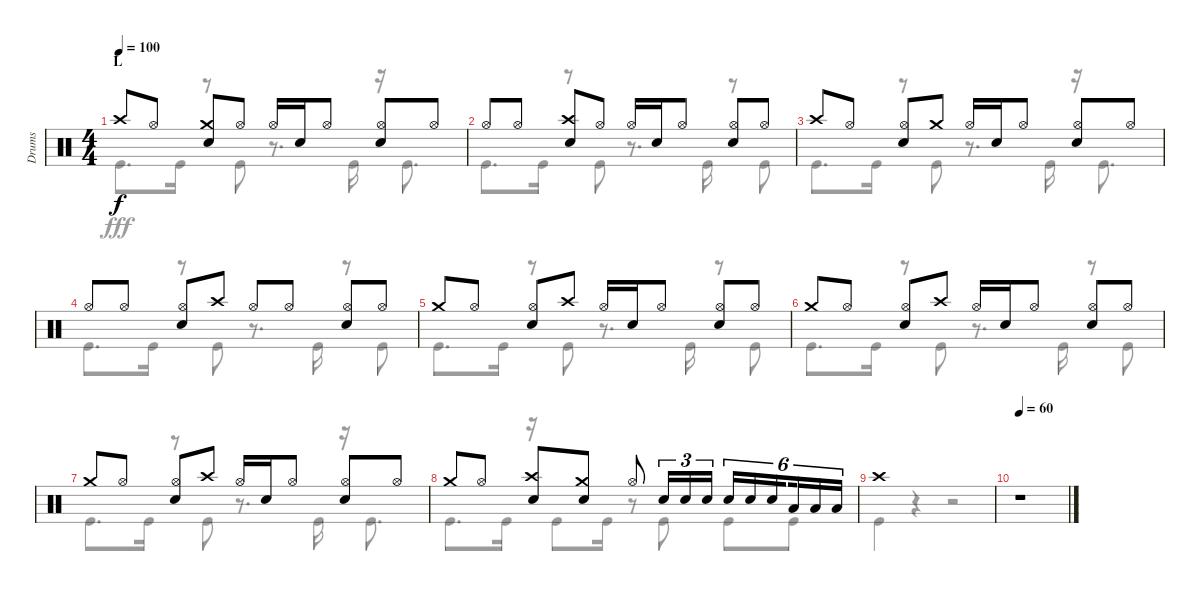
\track ("Drums" "Drums") {instrument percussion}
\staff {score}
\articulation defaults
\voice
\ts (4 4)
\section ("" "L")
\tempo 100
\clef neutral
\ks c "Crash high (hit)".8{dy f} "Hi-Hat (open)".8
("Crash medium (hit)" "Snare (hit) 2").8 "Hi-Hat (open)".8 "Hi-Hat (open)".16 "Snare (hit) 2".16 "Hi-Hat (open)".8 ("Hi-Hat (open)" "Snare (hit) 2").8 "Hi-Hat (open)".8 |
"Hi-Hat (open)".8 "Hi-Hat (open)".8 ("Crash high (hit)" "Snare (hit) 2").8 "Hi-Hat (open)".8 "Hi-Hat (open)".16 "Snare (hit) 2".16 "Hi-Hat (open)".8 ("Hi-Hat (open)" "Snare (hit) 2").8 "Hi-Hat (open)".8 |
"Crash high (hit)".8 "Hi-Hat (open)".8 ("Hi-Hat (open)" "Snare (hit) 2").8 "Crash medium (hit)".8 "Hi-Hat (open)".16 "Snare (hit) 2".16 "Hi-Hat (open)".8 ("Hi-Hat (open)" "Snare (hit) 2").8 "Hi-Hat (open)".8 |
"Hi-Hat (open)".8 "Hi-Hat (open)".8 ("Hi-Hat (open)" "Snare (hit) 2").8 "Crash high (hit)".8 "Hi-Hat (open)".8 "Hi-Hat (open)".8 ("Hi-Hat (open)" "Snare (hit) 2").8 "Hi-Hat (open)".8 |
"Crash medium (hit)".8 "Hi-Hat (open)".8 ("Hi-Hat (open)" "Snare (hit) 2").8 "Crash high (hit)".8 "Hi-Hat (open)".16 "Snare (hit) 2".16 "Hi-Hat (open)".8 ("Hi-Hat (open)" "Snare (hit) 2").8 "Hi-Hat (open)".8 |
"Crash medium (hit)".8 "Hi-Hat (open)".8 ("Hi-Hat (open)" "Snare (hit) 2").8 "Crash high (hit)".8 "Hi-Hat (open)".16 "Snare (hit) 2".16 "Hi-Hat (open)".8 ("Hi-Hat (open)" "Snare (hit) 2").8 "Hi-Hat (open)".8 |
"Crash medium (hit)".8 "Hi-Hat (open)".8 ("Hi-Hat (open)" "Snare (hit) 2").8 "Crash high (hit)".8 "Hi-Hat (open)".16 "Snare (hit) 2".16 "Hi-Hat (open)".8 ("Hi-Hat (open)" "Snare (hit) 2").8 "Hi-Hat (open)".8 |
"Crash medium (hit)".8 "Hi-Hat (open)".8 ("Crash high (hit)" "Snare (hit) 2").8 ("Crash medium (hit)" "Snare (hit) 2").8 "Hi-Hat (open)".8 "Snare (hit) 2".16{tu (3 2)} "Snare (hit) 2".16{tu (3 2)} "Snare (hit) 2".16{tu (3 2)} "Snare (hit) 2".16{tu (6 4)} "Snare (hit) 2".16{tu (6 4)} "Snare (hit) 2".16{tu (6 4) beam splitsecondary} "Low Tom (hit)".16{tu (6 4)} "Low Tom (hit)".16{tu (6 4)} "Low Tom (hit)".16{tu (6 4)} |
"Crash high (hit)".1 |
\tempo 60
r.1
\voice
\clef neutral
\ottava regular
\simile none
\ks c "Kick (hit)".8{d dy fff} "Kick (hit)".16
r.8 "Kick (hit)".8 r.8{d} "Kick (hit)".16 r.16 "Kick (hit)".8{d} |
"Kick (hit)".8{d} "Kick (hit)".16 r.8 "Kick (hit)".8 r.8{d} "Kick (hit)".16 r.8 "Kick (hit)".8 |
"Kick (hit)".8{d} "Kick (hit)".16 r.8 "Kick (hit)".8 r.8{d} "Kick (hit)".16 r.16 "Kick (hit)".8{d} |
"Kick (hit)".8{d} "Kick (hit)".16 r.8 "Kick (hit)".8 r.8{d} "Kick (hit)".16 r.8 "Kick (hit)".8 |
"Kick (hit)".8{d} "Kick (hit)".16 r.8 "Kick (hit)".8 r.8{d} "Kick (hit)".16 r.8 "Kick (hit)".8 |
"Kick (hit)".8{d} "Kick (hit)".16 r.8 "Kick (hit)".8 r.8{d} "Kick (hit)".16 r.8 "Kick (hit)".8 |
"Kick (hit)".8{d} "Kick (hit)".16 r.8 "Kick (hit)".8 r.8{d} "Kick (hit)".16 r.16 "Kick (hit)".8{d} |
"Kick (hit)".8{d} "Kick (hit)".16 r.16 "Kick (hit)".8 "Kick (hit)".16 r.8 "Kick (hit)".8 "Kick (hit)".8 "Kick (hit)".8 |
"Kick (hit)".4 r.4 r.2 |
r.1
